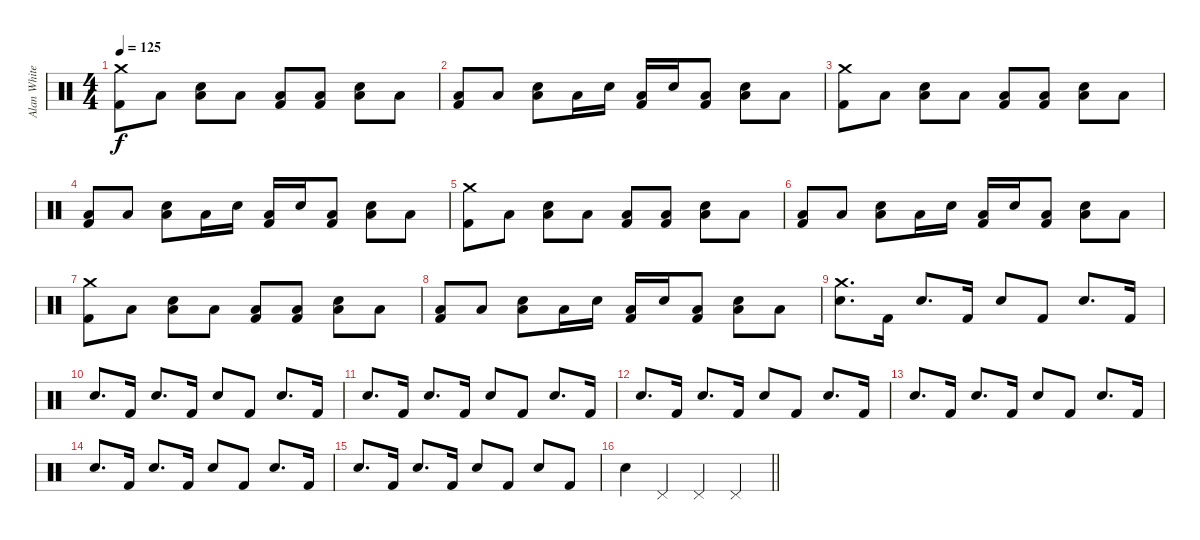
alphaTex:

\track ("Alan White" "Alan White") {instrument percussion}
\staff {score}
\articulation defaults
\ts (4 4)
\tempo 125
\clef neutral
\ks c
("Crash medium (hit)" "Kick (hit) 2").8{dy f} "Low Floor Tom (hit)".8 ("Low Floor Tom (hit)" "Snare (hit) 2").8 "Low Floor Tom (hit)".8 ("Low Floor Tom (hit)" "Kick (hit) 2").8 ("Low Floor Tom (hit)" "Kick (hit) 2").8 ("Low Floor Tom (hit)" "Snare (hit) 2").8 "Low Floor Tom (hit)".8 |
("Low Floor Tom (hit)" "Kick (hit) 2").8 "Low Floor Tom (hit)".8 ("Low Floor Tom (hit)" "Snare (hit) 2").8 "Low Floor Tom (hit)".16 "Snare (hit) 2".16 ("Low Floor Tom (hit)" "Kick (hit) 2").16 "Snare (hit) 2".16 ("Low Floor Tom (hit)" "Kick (hit) 2").8 ("Low Floor Tom (hit)" "Snare (hit) 2").8 "Low Floor Tom (hit)".8 |
("Crash medium (hit)" "Kick (hit) 2").8 "Low Floor Tom (hit)".8 ("Low Floor Tom (hit)" "Snare (hit) 2").8 "Low Floor Tom (hit)".8 ("Low Floor Tom (hit)" "Kick (hit) 2").8 ("Low Floor Tom (hit)" "Kick (hit) 2").8 ("Low Floor Tom (hit)" "Snare (hit) 2").8 "Low Floor Tom (hit)".8 |
("Low Floor Tom (hit)" "Kick (hit) 2").8 "Low Floor Tom (hit)".8 ("Low Floor Tom (hit)" "Snare (hit) 2").8 "Low Floor Tom (hit)".16 "Snare (hit) 2".16 ("Low Floor Tom (hit)" "Kick (hit) 2").16 "Snare (hit) 2".16 ("Low Floor Tom (hit)" "Kick (hit) 2").8 ("Low Floor Tom (hit)" "Snare (hit) 2").8 "Low Floor Tom (hit)".8 |
("Crash medium (hit)" "Kick (hit) 2").8 "Low Floor Tom (hit)".8 ("Low Floor Tom (hit)" "Snare (hit) 2").8 "Low Floor Tom (hit)".8 ("Low Floor Tom (hit)" "Kick (hit) 2").8 ("Low Floor Tom (hit)" "Kick (hit) 2").8 ("Low Floor Tom (hit)" "Snare (hit) 2").8 "Low Floor Tom (hit)".8 |
("Low Floor Tom (hit)" "Kick (hit) 2").8 "Low Floor Tom (hit)".8 ("Low Floor Tom (hit)" "Snare (hit) 2").8 "Low Floor Tom (hit)".16 "Snare (hit) 2".16 ("Low Floor Tom (hit)" "Kick (hit) 2").16 "Snare (hit) 2".16 ("Low Floor Tom (hit)" "Kick (hit) 2").8 ("Low Floor Tom (hit)" "Snare (hit) 2").8 "Low Floor Tom (hit)".8 |
("Crash medium (hit)" "Kick (hit) 2").8 "Low Floor Tom (hit)".8 ("Low Floor Tom (hit)" "Snare (hit) 2").8 "Low Floor Tom (hit)".8 ("Low Floor Tom (hit)" "Kick (hit) 2").8 ("Low Floor Tom (hit)" "Kick (hit) 2").8 ("Low Floor Tom (hit)" "Snare (hit) 2").8 "Low Floor Tom (hit)".8 |
("Low Floor Tom (hit)" "Kick (hit) 2").8 "Low Floor Tom (hit)".8 ("Low Floor Tom (hit)" "Snare (hit) 2").8 "Low Floor Tom (hit)".16 "Snare (hit) 2".16 ("Low Floor Tom (hit)" "Kick (hit) 2").16 "Snare (hit) 2".16 ("Low Floor Tom (hit)" "Kick (hit) 2").8 ("Low Floor Tom (hit)" "Snare (hit) 2").8 "Low Floor Tom (hit)".8 |
("Crash medium (hit)" "Snare (hit) 2").8{d} "Kick (hit) 2".16 "Snare (hit) 2".8{d} "Kick (hit) 2".16 "Snare (hit) 2".8 "Kick (hit) 2".8 "Snare (hit) 2".8{d} "Kick (hit) 2".16 |
"Snare (hit) 2".8{d} "Kick (hit) 2".16 "Snare (hit) 2".8{d} "Kick (hit) 2".16 "Snare (hit) 2".8 "Kick (hit) 2".8 "Snare (hit) 2".8{d} "Kick (hit) 2".16 |
"Snare (hit) 2".8{d} "Kick (hit) 2".16 "Snare (hit) 2".8{d} "Kick (hit) 2".16 "Snare (hit) 2".8 "Kick (hit) 2".8 "Snare (hit) 2".8{d} "Kick (hit) 2".16 |
"Snare (hit) 2".8{d} "Kick (hit) 2".16 "Snare (hit) 2".8{d} "Kick (hit) 2".16 "Snare (hit) 2".8 "Kick (hit) 2".8 "Snare (hit) 2".8{d} "Kick (hit) 2".16 |
"Snare (hit) 2".8{d} "Kick (hit) 2".16 "Snare (hit) 2".8{d} "Kick (hit) 2".16 "Snare (hit) 2".8 "Kick (hit) 2".8 "Snare (hit) 2".8{d} "Kick (hit) 2".16 |
"Snare (hit) 2".8{d} "Kick (hit) 2".16 "Snare (hit) 2".8{d} "Kick (hit) 2".16 "Snare (hit) 2".8 "Kick (hit) 2".8 "Snare (hit) 2".8{d} "Kick (hit) 2".16 |
"Snare (hit) 2".8{d} "Kick (hit) 2".16 "Snare (hit) 2".8{d} "Kick (hit) 2".16 "Snare (hit) 2".8 "Kick (hit) 2".8 "Snare (hit) 2".8 "Kick (hit) 2".8 |
\barLineRight lightlight "Snare (hit) 2".4 "Pedal Hi-Hat (hit)".4 "Pedal Hi-Hat (hit)".4 "Pedal Hi-Hat (hit)".4
